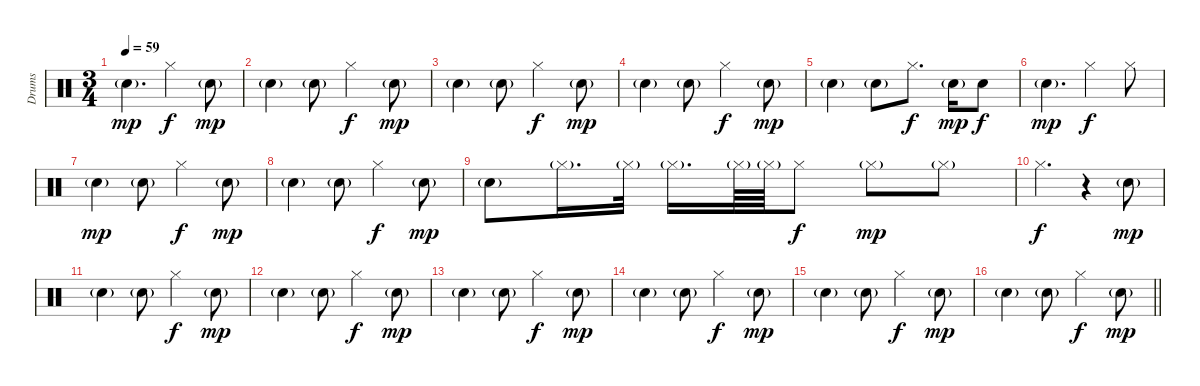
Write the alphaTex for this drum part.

\track ("Drums" "Drums") {instrument percussion}
\staff {score}
\articulation defaults
\ts (3 4)
\tempo 59
\clef neutral
\ks c "Snare (hit) 2"{g}.4{d dy mp} "Hi-Hat (closed)".4{dy f} "Snare (hit) 2"{g}.8{dy mp}
|
"Snare (hit) 2"{g}.4 "Snare (hit) 2"{g}.8 "Hi-Hat (closed)".4{dy f} "Snare (hit) 2"{g}.8{dy mp} |
"Snare (hit) 2"{g}.4 "Snare (hit) 2"{g}.8 "Hi-Hat (closed)".4{dy f} "Snare (hit) 2"{g}.8{dy mp} |
"Snare (hit) 2"{g}.4 "Snare (hit) 2"{g}.8 "Hi-Hat (closed)".4{dy f} "Snare (hit) 2"{g}.8{dy mp} |
"Snare (hit) 2"{g}.4 "Snare (hit) 2"{g}.8 "Hi-Hat (closed)".8{d dy f} "Snare (hit) 2"{g}.16{dy mp} "Snare (hit) 2".8{dy f} |
"Snare (hit) 2"{g}.4{d dy mp} "Hi-Hat (closed)".4{dy f} "Hi-Hat (closed)".8 |
"Snare (hit) 2"{g}.4{dy mp} "Snare (hit) 2"{g}.8 "Hi-Hat (closed)".4{dy f} "Snare (hit) 2"{g}.8{dy mp} |
"Snare (hit) 2"{g}.4 "Snare (hit) 2"{g}.8 "Hi-Hat (closed)".4{dy f} "Snare (hit) 2"{g}.8{dy mp} |
"Snare (hit) 2"{g}.8 "Hi-Hat (closed)"{g}.16{d} "Hi-Hat (closed)"{g}.32 "Hi-Hat (closed)"{g}.16{d} "Hi-Hat (closed)"{g}.64 "Hi-Hat (closed)"{g}.64 "Hi-Hat (closed)".8{dy f} "Hi-Hat (closed)"{g}.8{dy mp} "Hi-Hat (closed)"{g}.8 |
"Hi-Hat (closed)".4{d dy f} r.4 "Snare (hit) 2"{g}.8{dy mp} |
"Snare (hit) 2"{g}.4 "Snare (hit) 2"{g}.8 "Hi-Hat (closed)".4{dy f} "Snare (hit) 2"{g}.8{dy mp} |
"Snare (hit) 2"{g}.4 "Snare (hit) 2"{g}.8 "Hi-Hat (closed)".4{dy f} "Snare (hit) 2"{g}.8{dy mp} |
"Snare (hit) 2"{g}.4 "Snare (hit) 2"{g}.8 "Hi-Hat (closed)".4{dy f} "Snare (hit) 2"{g}.8{dy mp} |
"Snare (hit) 2"{g}.4 "Snare (hit) 2"{g}.8 "Hi-Hat (closed)".4{dy f} "Snare (hit) 2"{g}.8{dy mp} |
"Snare (hit) 2"{g}.4 "Snare (hit) 2"{g}.8 "Hi-Hat (closed)".4{dy f} "Snare (hit) 2"{g}.8{dy mp} |
\barLineRight lightlight "Snare (hit) 2"{g}.4 "Snare (hit) 2"{g}.8 "Hi-Hat (closed)".4{dy f} "Snare (hit) 2"{g}.8{dy mp}
